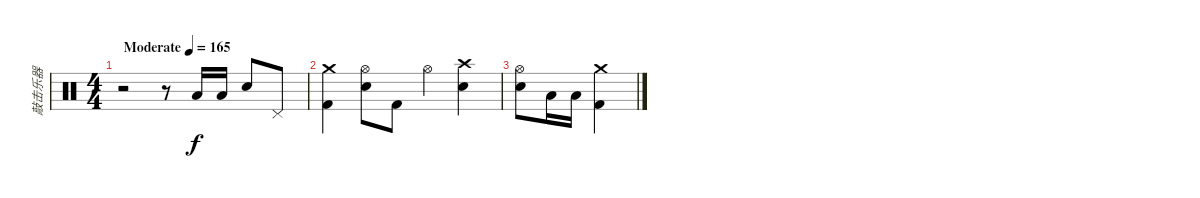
\track ("敲击乐器" "敲击乐器") {instrument percussion}
\staff {score}
\articulation defaults
\ts (4 4)
\tempo (165 "Moderate")
\clef neutral
\ks c
r.2{dy f} r.8 "Low Tom (hit)".16 "Low Tom (hit)".16 "Snare (hit) 2".8 "Pedal Hi-Hat (hit)".8 |
("Crash medium (hit)" "Kick (hit) 2").4 ("Hi-Hat (open)" "Snare (hit) 2").8 "Kick (hit) 2".8 "Hi-Hat (open)".4 ("Crash high (hit)" "Snare (hit) 2").4 |
("Hi-Hat (open)" "Snare (hit) 2").8 "Low Tom (hit)".16 "Low Tom (hit)".16 ("Crash medium (hit)" "Kick (hit) 2").4
